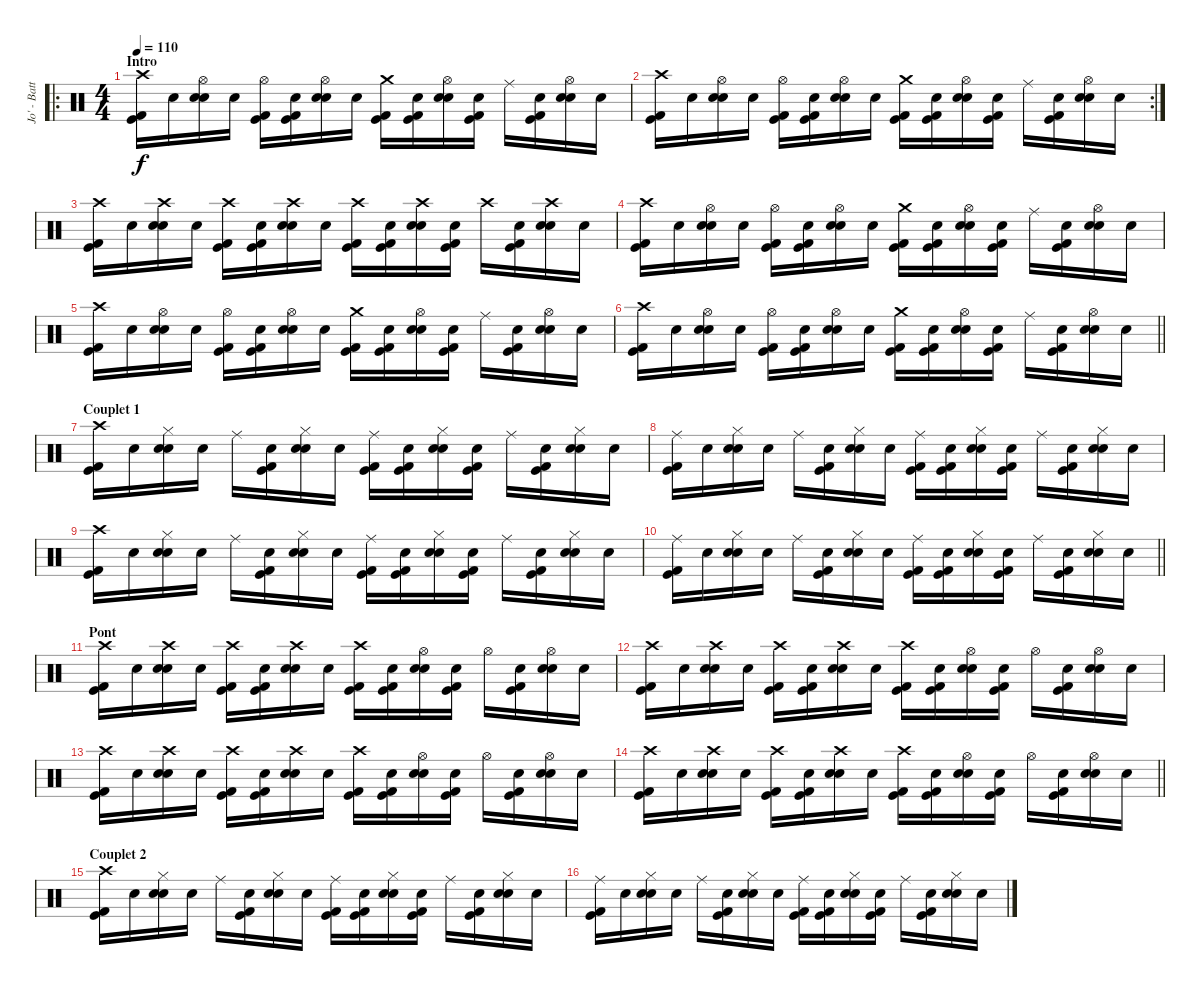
\track ("Jo' - Batterie" "Jo' - Batt") {instrument percussion}
\staff {score}
\articulation defaults
\ro
\ts (4 4)
\section ("" "Intro")
\tempo 110
\clef neutral
\ks c
("Crash high (hit)" "Kick (hit)" "Kick (hit) 2").16{dy f} "Snare (hit)".16 ("Hi-Hat (open)" "Electric Snare (hit)" "Snare (hit) 2").16 "Snare (hit)".16 ("Hi-Hat (open)" "Kick (hit)" "Kick (hit) 2").16 ("Snare (hit)" "Kick (hit)" "Kick (hit) 2").16 ("Hi-Hat (open)" "Electric Snare (hit)" "Snare (hit) 2").16 "Snare (hit)".16 ("Crash medium (hit)" "Kick (hit)" "Kick (hit) 2").16 ("Snare (hit)" "Kick (hit)" "Kick (hit) 2").16 ("Hi-Hat (open)" "Electric Snare (hit)" "Snare (hit) 2").16 ("Snare (hit)" "Kick (hit)" "Kick (hit) 2").16 "Ride (middle)".16 ("Snare (hit)" "Kick (hit)" "Kick (hit) 2").16 ("Hi-Hat (open)" "Electric Snare (hit)" "Snare (hit) 2").16 "Snare (hit)".16 |
\rc 2
("Crash high (hit)" "Kick (hit)" "Kick (hit) 2").16 "Snare (hit)".16 ("Hi-Hat (open)" "Electric Snare (hit)" "Snare (hit) 2").16 "Snare (hit)".16 ("Hi-Hat (open)" "Kick (hit)" "Kick (hit) 2").16 ("Snare (hit)" "Kick (hit)" "Kick (hit) 2").16 ("Hi-Hat (open)" "Electric Snare (hit)" "Snare (hit) 2").16 "Snare (hit)".16 ("Crash medium (hit)" "Kick (hit)" "Kick (hit) 2").16 ("Snare (hit)" "Kick (hit)" "Kick (hit) 2").16 ("Hi-Hat (open)" "Electric Snare (hit)" "Snare (hit) 2").16 ("Snare (hit)" "Kick (hit)" "Kick (hit) 2").16 "Ride (middle)".16 ("Snare (hit)" "Kick (hit)" "Kick (hit) 2").16 ("Hi-Hat (open)" "Electric Snare (hit)" "Snare (hit) 2").16 "Snare (hit)".16 |
("Crash high (hit)" "Kick (hit)" "Kick (hit) 2").16 "Snare (hit)".16 ("Crash high (hit)" "Electric Snare (hit)" "Snare (hit) 2").16 "Snare (hit)".16 ("Crash high (hit)" "Kick (hit)" "Kick (hit) 2").16 ("Snare (hit)" "Kick (hit)" "Kick (hit) 2").16 ("Crash high (hit)" "Electric Snare (hit)" "Snare (hit) 2").16 "Snare (hit)".16 ("Crash high (hit)" "Kick (hit)" "Kick (hit) 2").16 ("Snare (hit)" "Kick (hit)" "Kick (hit) 2").16 ("Crash high (hit)" "Electric Snare (hit)" "Snare (hit) 2").16 ("Snare (hit)" "Kick (hit)" "Kick (hit) 2").16 "Crash high (hit)".16 ("Snare (hit)" "Kick (hit)" "Kick (hit) 2").16 ("Crash high (hit)" "Electric Snare (hit)" "Snare (hit) 2").16 "Snare (hit)".16 |
("Crash high (hit)" "Kick (hit)" "Kick (hit) 2").16 "Snare (hit)".16 ("Hi-Hat (open)" "Electric Snare (hit)" "Snare (hit) 2").16 "Snare (hit)".16 ("Hi-Hat (open)" "Kick (hit)" "Kick (hit) 2").16 ("Snare (hit)" "Kick (hit)" "Kick (hit) 2").16 ("Hi-Hat (open)" "Electric Snare (hit)" "Snare (hit) 2").16 "Snare (hit)".16 ("Crash medium (hit)" "Kick (hit)" "Kick (hit) 2").16 ("Snare (hit)" "Kick (hit)" "Kick (hit) 2").16 ("Hi-Hat (open)" "Electric Snare (hit)" "Snare (hit) 2").16 ("Snare (hit)" "Kick (hit)" "Kick (hit) 2").16 "Ride (middle)".16 ("Snare (hit)" "Kick (hit)" "Kick (hit) 2").16 ("Hi-Hat (open)" "Electric Snare (hit)" "Snare (hit) 2").16 "Snare (hit)".16 |
("Crash high (hit)" "Kick (hit)" "Kick (hit) 2").16 "Snare (hit)".16 ("Hi-Hat (open)" "Electric Snare (hit)" "Snare (hit) 2").16 "Snare (hit)".16 ("Hi-Hat (open)" "Kick (hit)" "Kick (hit) 2").16 ("Snare (hit)" "Kick (hit)" "Kick (hit) 2").16 ("Hi-Hat (open)" "Electric Snare (hit)" "Snare (hit) 2").16 "Snare (hit)".16 ("Crash medium (hit)" "Kick (hit)" "Kick (hit) 2").16 ("Snare (hit)" "Kick (hit)" "Kick (hit) 2").16 ("Hi-Hat (open)" "Electric Snare (hit)" "Snare (hit) 2").16 ("Snare (hit)" "Kick (hit)" "Kick (hit) 2").16 "Ride (middle)".16 ("Snare (hit)" "Kick (hit)" "Kick (hit) 2").16 ("Hi-Hat (open)" "Electric Snare (hit)" "Snare (hit) 2").16 "Snare (hit)".16 |
\barLineRight lightlight
("Crash high (hit)" "Kick (hit)" "Kick (hit) 2").16 "Snare (hit)".16 ("Hi-Hat (open)" "Electric Snare (hit)" "Snare (hit) 2").16 "Snare (hit)".16 ("Hi-Hat (open)" "Kick (hit)" "Kick (hit) 2").16 ("Snare (hit)" "Kick (hit)" "Kick (hit) 2").16 ("Hi-Hat (open)" "Electric Snare (hit)" "Snare (hit) 2").16 "Snare (hit)".16 ("Crash medium (hit)" "Kick (hit)" "Kick (hit) 2").16 ("Snare (hit)" "Kick (hit)" "Kick (hit) 2").16 ("Hi-Hat (open)" "Electric Snare (hit)" "Snare (hit) 2").16 ("Snare (hit)" "Kick (hit)" "Kick (hit) 2").16 "Ride (middle)".16 ("Snare (hit)" "Kick (hit)" "Kick (hit) 2").16 ("Hi-Hat (open)" "Electric Snare (hit)" "Snare (hit) 2").16 "Snare (hit)".16 |
\section ("" "Couplet 1")
("Crash high (hit)" "Kick (hit)" "Kick (hit) 2").16 "Snare (hit)".16 ("Hi-Hat (closed)" "Electric Snare (hit)" "Snare (hit) 2").16 "Snare (hit)".16 "Ride (middle)".16 ("Snare (hit)" "Kick (hit)" "Kick (hit) 2").16 ("Hi-Hat (closed)" "Electric Snare (hit)" "Snare (hit) 2").16 "Snare (hit)".16 ("Ride (middle)" "Kick (hit)" "Kick (hit) 2").16 ("Snare (hit)" "Kick (hit)" "Kick (hit) 2").16 ("Hi-Hat (closed)" "Electric Snare (hit)" "Snare (hit) 2").16 ("Snare (hit)" "Kick (hit)" "Kick (hit) 2").16 "Ride (middle)".16 ("Snare (hit)" "Kick (hit)" "Kick (hit) 2").16 ("Hi-Hat (closed)" "Electric Snare (hit)" "Snare (hit) 2").16 "Snare (hit)".16 |
("Ride (middle)" "Kick (hit)" "Kick (hit) 2").16 "Snare (hit)".16 ("Hi-Hat (closed)" "Electric Snare (hit)" "Snare (hit) 2").16 "Snare (hit)".16 "Ride (middle)".16 ("Snare (hit)" "Kick (hit)" "Kick (hit) 2").16 ("Hi-Hat (closed)" "Electric Snare (hit)" "Snare (hit) 2").16 "Snare (hit)".16 ("Ride (middle)" "Kick (hit)" "Kick (hit) 2").16 ("Snare (hit)" "Kick (hit)" "Kick (hit) 2").16 ("Hi-Hat (closed)" "Electric Snare (hit)" "Snare (hit) 2").16 ("Snare (hit)" "Kick (hit)" "Kick (hit) 2").16 "Ride (middle)".16 ("Snare (hit)" "Kick (hit)" "Kick (hit) 2").16 ("Hi-Hat (closed)" "Electric Snare (hit)" "Snare (hit) 2").16 "Snare (hit)".16 |
("Crash high (hit)" "Kick (hit)" "Kick (hit) 2").16 "Snare (hit)".16 ("Hi-Hat (closed)" "Electric Snare (hit)" "Snare (hit) 2").16 "Snare (hit)".16 "Ride (middle)".16 ("Snare (hit)" "Kick (hit)" "Kick (hit) 2").16 ("Hi-Hat (closed)" "Electric Snare (hit)" "Snare (hit) 2").16 "Snare (hit)".16 ("Ride (middle)" "Kick (hit)" "Kick (hit) 2").16 ("Snare (hit)" "Kick (hit)" "Kick (hit) 2").16 ("Hi-Hat (closed)" "Electric Snare (hit)" "Snare (hit) 2").16 ("Snare (hit)" "Kick (hit)" "Kick (hit) 2").16 "Ride (middle)".16 ("Snare (hit)" "Kick (hit)" "Kick (hit) 2").16 ("Hi-Hat (closed)" "Electric Snare (hit)" "Snare (hit) 2").16 "Snare (hit)".16 |
\barLineRight lightlight
("Ride (middle)" "Kick (hit)" "Kick (hit) 2").16 "Snare (hit)".16 ("Hi-Hat (closed)" "Electric Snare (hit)" "Snare (hit) 2").16 "Snare (hit)".16 "Ride (middle)".16 ("Snare (hit)" "Kick (hit)" "Kick (hit) 2").16 ("Hi-Hat (closed)" "Electric Snare (hit)" "Snare (hit) 2").16 "Snare (hit)".16 ("Ride (middle)" "Kick (hit)" "Kick (hit) 2").16 ("Snare (hit)" "Kick (hit)" "Kick (hit) 2").16 ("Hi-Hat (closed)" "Electric Snare (hit)" "Snare (hit) 2").16 ("Snare (hit)" "Kick (hit)" "Kick (hit) 2").16 "Ride (middle)".16 ("Snare (hit)" "Kick (hit)" "Kick (hit) 2").16 ("Hi-Hat (closed)" "Electric Snare (hit)" "Snare (hit) 2").16 "Snare (hit)".16 |
\section ("" "Pont")
("Crash high (hit)" "Kick (hit)" "Kick (hit) 2").16 "Snare (hit)".16 ("Crash high (hit)" "Electric Snare (hit)" "Snare (hit) 2").16 "Snare (hit)".16 ("Crash high (hit)" "Kick (hit)" "Kick (hit) 2").16 ("Snare (hit)" "Kick (hit)" "Kick (hit) 2").16 ("Crash high (hit)" "Electric Snare (hit)" "Snare (hit) 2").16 "Snare (hit)".16 ("Crash high (hit)" "Kick (hit)" "Kick (hit) 2").16 ("Snare (hit)" "Kick (hit)" "Kick (hit) 2").16 ("Hi-Hat (open)" "Electric Snare (hit)" "Snare (hit) 2").16 ("Snare (hit)" "Kick (hit)" "Kick (hit) 2").16 "Hi-Hat (open)".16 ("Snare (hit)" "Kick (hit)" "Kick (hit) 2").16 ("Hi-Hat (open)" "Electric Snare (hit)" "Snare (hit) 2").16 "Snare (hit)".16 |
("Crash high (hit)" "Kick (hit)" "Kick (hit) 2").16 "Snare (hit)".16 ("Crash high (hit)" "Electric Snare (hit)" "Snare (hit) 2").16 "Snare (hit)".16 ("Crash high (hit)" "Kick (hit)" "Kick (hit) 2").16 ("Snare (hit)" "Kick (hit)" "Kick (hit) 2").16 ("Crash high (hit)" "Electric Snare (hit)" "Snare (hit) 2").16 "Snare (hit)".16 ("Crash high (hit)" "Kick (hit)" "Kick (hit) 2").16 ("Snare (hit)" "Kick (hit)" "Kick (hit) 2").16 ("Hi-Hat (open)" "Electric Snare (hit)" "Snare (hit) 2").16 ("Snare (hit)" "Kick (hit)" "Kick (hit) 2").16 "Hi-Hat (open)".16 ("Snare (hit)" "Kick (hit)" "Kick (hit) 2").16 ("Hi-Hat (open)" "Electric Snare (hit)" "Snare (hit) 2").16 "Snare (hit)".16 |
("Crash high (hit)" "Kick (hit)" "Kick (hit) 2").16 "Snare (hit)".16 ("Crash high (hit)" "Electric Snare (hit)" "Snare (hit) 2").16 "Snare (hit)".16 ("Crash high (hit)" "Kick (hit)" "Kick (hit) 2").16 ("Snare (hit)" "Kick (hit)" "Kick (hit) 2").16 ("Crash high (hit)" "Electric Snare (hit)" "Snare (hit) 2").16 "Snare (hit)".16 ("Crash high (hit)" "Kick (hit)" "Kick (hit) 2").16 ("Snare (hit)" "Kick (hit)" "Kick (hit) 2").16 ("Hi-Hat (open)" "Electric Snare (hit)" "Snare (hit) 2").16 ("Snare (hit)" "Kick (hit)" "Kick (hit) 2").16 "Hi-Hat (open)".16 ("Snare (hit)" "Kick (hit)" "Kick (hit) 2").16 ("Hi-Hat (open)" "Electric Snare (hit)" "Snare (hit) 2").16 "Snare (hit)".16 |
\barLineRight lightlight
("Crash high (hit)" "Kick (hit)" "Kick (hit) 2").16 "Snare (hit)".16 ("Crash high (hit)" "Electric Snare (hit)" "Snare (hit) 2").16 "Snare (hit)".16 ("Crash high (hit)" "Kick (hit)" "Kick (hit) 2").16 ("Snare (hit)" "Kick (hit)" "Kick (hit) 2").16 ("Crash high (hit)" "Electric Snare (hit)" "Snare (hit) 2").16 "Snare (hit)".16 ("Crash high (hit)" "Kick (hit)" "Kick (hit) 2").16 ("Snare (hit)" "Kick (hit)" "Kick (hit) 2").16 ("Hi-Hat (open)" "Electric Snare (hit)" "Snare (hit) 2").16 ("Snare (hit)" "Kick (hit)" "Kick (hit) 2").16 "Hi-Hat (open)".16 ("Snare (hit)" "Kick (hit)" "Kick (hit) 2").16 ("Hi-Hat (open)" "Electric Snare (hit)" "Snare (hit) 2").16 "Snare (hit)".16 |
\section ("" "Couplet 2")
("Crash high (hit)" "Kick (hit)" "Kick (hit) 2").16 "Snare (hit)".16 ("Hi-Hat (closed)" "Electric Snare (hit)" "Snare (hit) 2").16 "Snare (hit)".16 "Ride (middle)".16 ("Snare (hit)" "Kick (hit)" "Kick (hit) 2").16 ("Hi-Hat (closed)" "Electric Snare (hit)" "Snare (hit) 2").16 "Snare (hit)".16 ("Ride (middle)" "Kick (hit)" "Kick (hit) 2").16 ("Snare (hit)" "Kick (hit)" "Kick (hit) 2").16 ("Hi-Hat (closed)" "Electric Snare (hit)" "Snare (hit) 2").16 ("Snare (hit)" "Kick (hit)" "Kick (hit) 2").16 "Ride (middle)".16 ("Snare (hit)" "Kick (hit)" "Kick (hit) 2").16 ("Hi-Hat (closed)" "Electric Snare (hit)" "Snare (hit) 2").16 "Snare (hit)".16 |
("Ride (middle)" "Kick (hit)" "Kick (hit) 2").16 "Snare (hit)".16 ("Hi-Hat (closed)" "Electric Snare (hit)" "Snare (hit) 2").16 "Snare (hit)".16 "Ride (middle)".16 ("Snare (hit)" "Kick (hit)" "Kick (hit) 2").16 ("Hi-Hat (closed)" "Electric Snare (hit)" "Snare (hit) 2").16 "Snare (hit)".16 ("Ride (middle)" "Kick (hit)" "Kick (hit) 2").16 ("Snare (hit)" "Kick (hit)" "Kick (hit) 2").16 ("Hi-Hat (closed)" "Electric Snare (hit)" "Snare (hit) 2").16 ("Snare (hit)" "Kick (hit)" "Kick (hit) 2").16 "Ride (middle)".16 ("Snare (hit)" "Kick (hit)" "Kick (hit) 2").16 ("Hi-Hat (closed)" "Electric Snare (hit)" "Snare (hit) 2").16 "Snare (hit)".16
